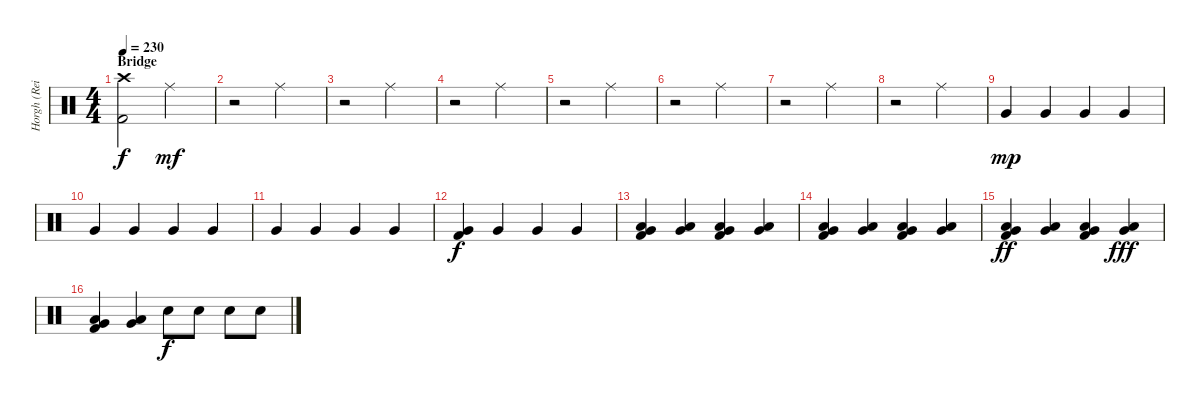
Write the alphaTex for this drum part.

\track ("Horgh (Reidar Horghagen)" "Horgh (Rei") {instrument percussion}
\staff {score}
\articulation defaults
\ts (4 4)
\section ("" "Bridge")
\tempo 230
\clef neutral
\ks c
("Crash high (hit)" "Kick (hit) 2").2{dy f} "Ride (middle)".2{dy mf} |
r.2 "Ride (middle)".2 |
r.2 "Ride (middle)".2 |
r.2 "Ride (middle)".2 |
r.2 "Ride (middle)".2 |
r.2 "Ride (middle)".2 |
r.2 "Ride (middle)".2 |
r.2 "Ride (middle)".2 |
"Very Low Tom (hit)".4{dy mp} "Very Low Tom (hit)".4 "Very Low Tom (hit)".4 "Very Low Tom (hit)".4 |
"Very Low Tom (hit)".4 "Very Low Tom (hit)".4 "Very Low Tom (hit)".4 "Very Low Tom (hit)".4 |
"Very Low Tom (hit)".4 "Very Low Tom (hit)".4 "Very Low Tom (hit)".4 "Very Low Tom (hit)".4 |
("Very Low Tom (hit)" "Kick (hit) 2").4{dy f} "Very Low Tom (hit)".4 "Very Low Tom (hit)".4 "Very Low Tom (hit)".4 |
("Very Low Tom (hit)" "Low Floor Tom (hit)" "Kick (hit) 2").4 ("Very Low Tom (hit)" "Low Floor Tom (hit)").4 ("Very Low Tom (hit)" "Low Floor Tom (hit)" "Kick (hit) 2").4 ("Very Low Tom (hit)" "Low Floor Tom (hit)").4 |
("Very Low Tom (hit)" "Low Floor Tom (hit)" "Kick (hit) 2").4 ("Very Low Tom (hit)" "Low Floor Tom (hit)").4 ("Very Low Tom (hit)" "Low Floor Tom (hit)" "Kick (hit) 2").4 ("Very Low Tom (hit)" "Low Floor Tom (hit)").4 |
("Very Low Tom (hit)" "Low Floor Tom (hit)" "Kick (hit) 2").4{dy ff} ("Very Low Tom (hit)" "Low Floor Tom (hit)").4 ("Very Low Tom (hit)" "Low Floor Tom (hit)" "Kick (hit) 2").4 ("Very Low Tom (hit)" "Low Floor Tom (hit)").4{dy fff} |
("Very Low Tom (hit)" "Low Floor Tom (hit)" "Kick (hit) 2").4 ("Very Low Tom (hit)" "Low Floor Tom (hit)").4 "Snare (hit) 2".8{dy f} "Snare (hit) 2".8 "Snare (hit) 2".8 "Snare (hit) 2".8
